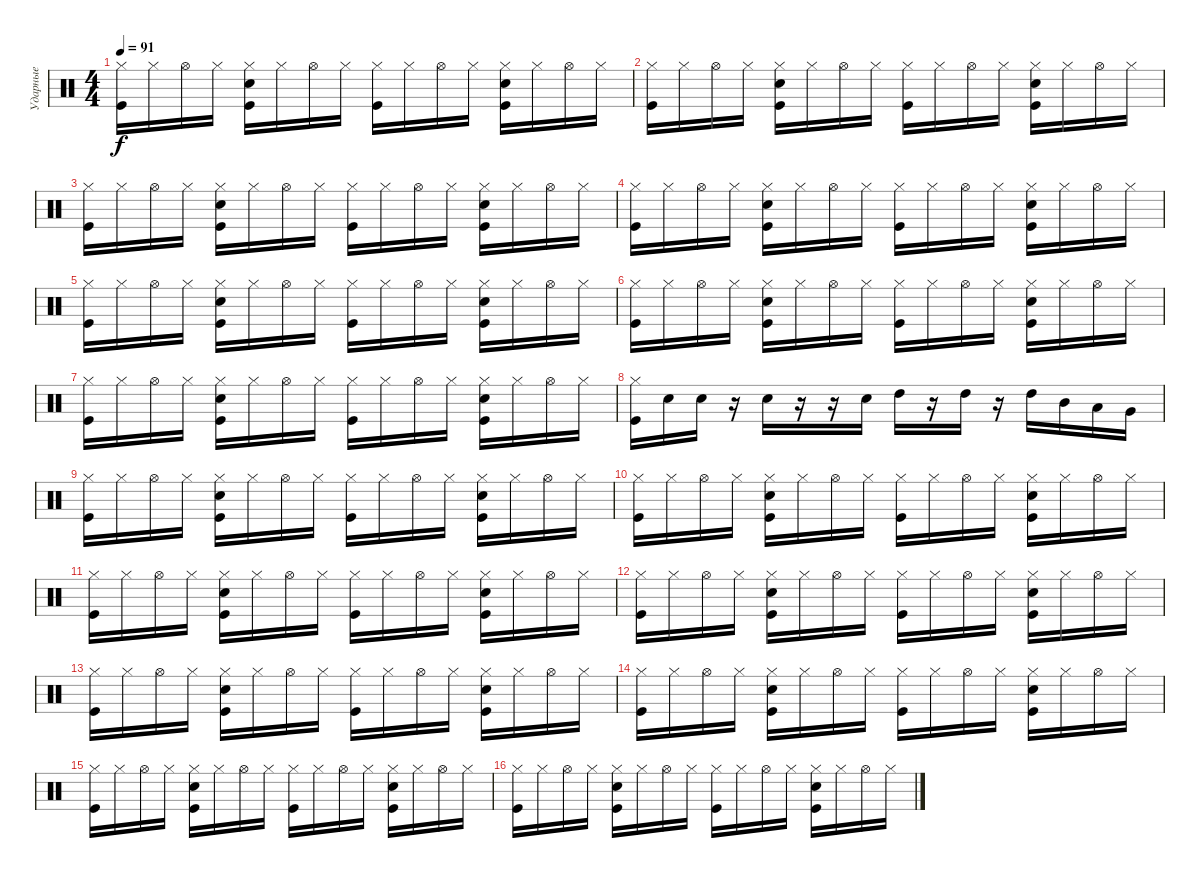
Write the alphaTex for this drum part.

\track ("Ударные" "Ударные") {instrument percussion}
\staff {score}
\articulation defaults
\ts (4 4)
\tempo 91
\clef neutral
\ks c
("Hi-Hat (closed)" "Kick (hit)").16{dy f} "Hi-Hat (closed)".16 "Hi-Hat (open)".16 "Hi-Hat (closed)".16 ("Hi-Hat (closed)" "Snare (hit) 2" "Kick (hit)").16 "Hi-Hat (closed)".16 "Hi-Hat (open)".16 "Hi-Hat (closed)".16 ("Hi-Hat (closed)" "Kick (hit)").16 "Hi-Hat (closed)".16 "Hi-Hat (open)".16 "Hi-Hat (closed)".16 ("Hi-Hat (closed)" "Snare (hit) 2" "Kick (hit)").16 "Hi-Hat (closed)".16 "Hi-Hat (open)".16 "Hi-Hat (closed)".16 |
("Hi-Hat (closed)" "Kick (hit)").16 "Hi-Hat (closed)".16 "Hi-Hat (open)".16 "Hi-Hat (closed)".16 ("Hi-Hat (closed)" "Snare (hit) 2" "Kick (hit)").16 "Hi-Hat (closed)".16 "Hi-Hat (open)".16 "Hi-Hat (closed)".16 ("Hi-Hat (closed)" "Kick (hit)").16 "Hi-Hat (closed)".16 "Hi-Hat (open)".16 "Hi-Hat (closed)".16 ("Hi-Hat (closed)" "Snare (hit) 2" "Kick (hit)").16 "Hi-Hat (closed)".16 "Hi-Hat (open)".16 "Hi-Hat (closed)".16 |
("Hi-Hat (closed)" "Kick (hit)").16 "Hi-Hat (closed)".16 "Hi-Hat (open)".16 "Hi-Hat (closed)".16 ("Hi-Hat (closed)" "Snare (hit) 2" "Kick (hit)").16 "Hi-Hat (closed)".16 "Hi-Hat (open)".16 "Hi-Hat (closed)".16 ("Hi-Hat (closed)" "Kick (hit)").16 "Hi-Hat (closed)".16 "Hi-Hat (open)".16 "Hi-Hat (closed)".16 ("Hi-Hat (closed)" "Snare (hit) 2" "Kick (hit)").16 "Hi-Hat (closed)".16 "Hi-Hat (open)".16 "Hi-Hat (closed)".16 |
("Hi-Hat (closed)" "Kick (hit)").16 "Hi-Hat (closed)".16 "Hi-Hat (open)".16 "Hi-Hat (closed)".16 ("Hi-Hat (closed)" "Snare (hit) 2" "Kick (hit)").16 "Hi-Hat (closed)".16 "Hi-Hat (open)".16 "Hi-Hat (closed)".16 ("Hi-Hat (closed)" "Kick (hit)").16 "Hi-Hat (closed)".16 "Hi-Hat (open)".16 "Hi-Hat (closed)".16 ("Hi-Hat (closed)" "Snare (hit) 2" "Kick (hit)").16 "Hi-Hat (closed)".16 "Hi-Hat (open)".16 "Hi-Hat (closed)".16 |
("Hi-Hat (closed)" "Kick (hit)").16 "Hi-Hat (closed)".16 "Hi-Hat (open)".16 "Hi-Hat (closed)".16 ("Hi-Hat (closed)" "Snare (hit) 2" "Kick (hit)").16 "Hi-Hat (closed)".16 "Hi-Hat (open)".16 "Hi-Hat (closed)".16 ("Hi-Hat (closed)" "Kick (hit)").16 "Hi-Hat (closed)".16 "Hi-Hat (open)".16 "Hi-Hat (closed)".16 ("Hi-Hat (closed)" "Snare (hit) 2" "Kick (hit)").16 "Hi-Hat (closed)".16 "Hi-Hat (open)".16 "Hi-Hat (closed)".16 |
("Hi-Hat (closed)" "Kick (hit)").16 "Hi-Hat (closed)".16 "Hi-Hat (open)".16 "Hi-Hat (closed)".16 ("Hi-Hat (closed)" "Snare (hit) 2" "Kick (hit)").16 "Hi-Hat (closed)".16 "Hi-Hat (open)".16 "Hi-Hat (closed)".16 ("Hi-Hat (closed)" "Kick (hit)").16 "Hi-Hat (closed)".16 "Hi-Hat (open)".16 "Hi-Hat (closed)".16 ("Hi-Hat (closed)" "Snare (hit) 2" "Kick (hit)").16 "Hi-Hat (closed)".16 "Hi-Hat (open)".16 "Hi-Hat (closed)".16 |
("Hi-Hat (closed)" "Kick (hit)").16 "Hi-Hat (closed)".16 "Hi-Hat (open)".16 "Hi-Hat (closed)".16 ("Hi-Hat (closed)" "Snare (hit) 2" "Kick (hit)").16 "Hi-Hat (closed)".16 "Hi-Hat (open)".16 "Hi-Hat (closed)".16 ("Hi-Hat (closed)" "Kick (hit)").16 "Hi-Hat (closed)".16 "Hi-Hat (open)".16 "Hi-Hat (closed)".16 ("Hi-Hat (closed)" "Snare (hit) 2" "Kick (hit)").16 "Hi-Hat (closed)".16 "Hi-Hat (open)".16 "Hi-Hat (closed)".16 |
("Hi-Hat (closed)" "Kick (hit)").16 "Snare (hit) 2".16 "Snare (hit) 2".16 r.16 "Snare (hit) 2".16 r.16 r.16 "Snare (hit) 2".16 "High Tom (hit)".16 r.16 "High Tom (hit)".16 r.16 "High Tom (hit)".16 "Mid Tom (hit)".16 "Low Tom (hit)".16 "Very Low Tom (hit)".16 |
("Hi-Hat (closed)" "Kick (hit)").16 "Hi-Hat (closed)".16 "Hi-Hat (open)".16 "Hi-Hat (closed)".16 ("Hi-Hat (closed)" "Snare (hit) 2" "Kick (hit)").16 "Hi-Hat (closed)".16 "Hi-Hat (open)".16 "Hi-Hat (closed)".16 ("Hi-Hat (closed)" "Kick (hit)").16 "Hi-Hat (closed)".16 "Hi-Hat (open)".16 "Hi-Hat (closed)".16 ("Hi-Hat (closed)" "Snare (hit) 2" "Kick (hit)").16 "Hi-Hat (closed)".16 "Hi-Hat (open)".16 "Hi-Hat (closed)".16 |
("Hi-Hat (closed)" "Kick (hit)").16 "Hi-Hat (closed)".16 "Hi-Hat (open)".16 "Hi-Hat (closed)".16 ("Hi-Hat (closed)" "Snare (hit) 2" "Kick (hit)").16 "Hi-Hat (closed)".16 "Hi-Hat (open)".16 "Hi-Hat (closed)".16 ("Hi-Hat (closed)" "Kick (hit)").16 "Hi-Hat (closed)".16 "Hi-Hat (open)".16 "Hi-Hat (closed)".16 ("Hi-Hat (closed)" "Snare (hit) 2" "Kick (hit)").16 "Hi-Hat (closed)".16 "Hi-Hat (open)".16 "Hi-Hat (closed)".16 |
("Hi-Hat (closed)" "Kick (hit)").16 "Hi-Hat (closed)".16 "Hi-Hat (open)".16 "Hi-Hat (closed)".16 ("Hi-Hat (closed)" "Snare (hit) 2" "Kick (hit)").16 "Hi-Hat (closed)".16 "Hi-Hat (open)".16 "Hi-Hat (closed)".16 ("Hi-Hat (closed)" "Kick (hit)").16 "Hi-Hat (closed)".16 "Hi-Hat (open)".16 "Hi-Hat (closed)".16 ("Hi-Hat (closed)" "Snare (hit) 2" "Kick (hit)").16 "Hi-Hat (closed)".16 "Hi-Hat (open)".16 "Hi-Hat (closed)".16 |
("Hi-Hat (closed)" "Kick (hit)").16 "Hi-Hat (closed)".16 "Hi-Hat (open)".16 "Hi-Hat (closed)".16 ("Hi-Hat (closed)" "Snare (hit) 2" "Kick (hit)").16 "Hi-Hat (closed)".16 "Hi-Hat (open)".16 "Hi-Hat (closed)".16 ("Hi-Hat (closed)" "Kick (hit)").16 "Hi-Hat (closed)".16 "Hi-Hat (open)".16 "Hi-Hat (closed)".16 ("Hi-Hat (closed)" "Snare (hit) 2" "Kick (hit)").16 "Hi-Hat (closed)".16 "Hi-Hat (open)".16 "Hi-Hat (closed)".16 |
("Hi-Hat (closed)" "Kick (hit)").16 "Hi-Hat (closed)".16 "Hi-Hat (open)".16 "Hi-Hat (closed)".16 ("Hi-Hat (closed)" "Snare (hit) 2" "Kick (hit)").16 "Hi-Hat (closed)".16 "Hi-Hat (open)".16 "Hi-Hat (closed)".16 ("Hi-Hat (closed)" "Kick (hit)").16 "Hi-Hat (closed)".16 "Hi-Hat (open)".16 "Hi-Hat (closed)".16 ("Hi-Hat (closed)" "Snare (hit) 2" "Kick (hit)").16 "Hi-Hat (closed)".16 "Hi-Hat (open)".16 "Hi-Hat (closed)".16 |
("Hi-Hat (closed)" "Kick (hit)").16 "Hi-Hat (closed)".16 "Hi-Hat (open)".16 "Hi-Hat (closed)".16 ("Hi-Hat (closed)" "Snare (hit) 2" "Kick (hit)").16 "Hi-Hat (closed)".16 "Hi-Hat (open)".16 "Hi-Hat (closed)".16 ("Hi-Hat (closed)" "Kick (hit)").16 "Hi-Hat (closed)".16 "Hi-Hat (open)".16 "Hi-Hat (closed)".16 ("Hi-Hat (closed)" "Snare (hit) 2" "Kick (hit)").16 "Hi-Hat (closed)".16 "Hi-Hat (open)".16 "Hi-Hat (closed)".16 |
("Hi-Hat (closed)" "Kick (hit)").16 "Hi-Hat (closed)".16 "Hi-Hat (open)".16 "Hi-Hat (closed)".16 ("Hi-Hat (closed)" "Snare (hit) 2" "Kick (hit)").16 "Hi-Hat (closed)".16 "Hi-Hat (open)".16 "Hi-Hat (closed)".16 ("Hi-Hat (closed)" "Kick (hit)").16 "Hi-Hat (closed)".16 "Hi-Hat (open)".16 "Hi-Hat (closed)".16 ("Hi-Hat (closed)" "Snare (hit) 2" "Kick (hit)").16 "Hi-Hat (closed)".16 "Hi-Hat (open)".16 "Hi-Hat (closed)".16 |
("Hi-Hat (closed)" "Kick (hit)").16 "Hi-Hat (closed)".16 "Hi-Hat (open)".16 "Hi-Hat (closed)".16 ("Hi-Hat (closed)" "Snare (hit) 2" "Kick (hit)").16 "Hi-Hat (closed)".16 "Hi-Hat (open)".16 "Hi-Hat (closed)".16 ("Hi-Hat (closed)" "Kick (hit)").16 "Hi-Hat (closed)".16 "Hi-Hat (open)".16 "Hi-Hat (closed)".16 ("Hi-Hat (closed)" "Snare (hit) 2" "Kick (hit)").16 "Hi-Hat (closed)".16 "Hi-Hat (open)".16 "Hi-Hat (closed)".16
